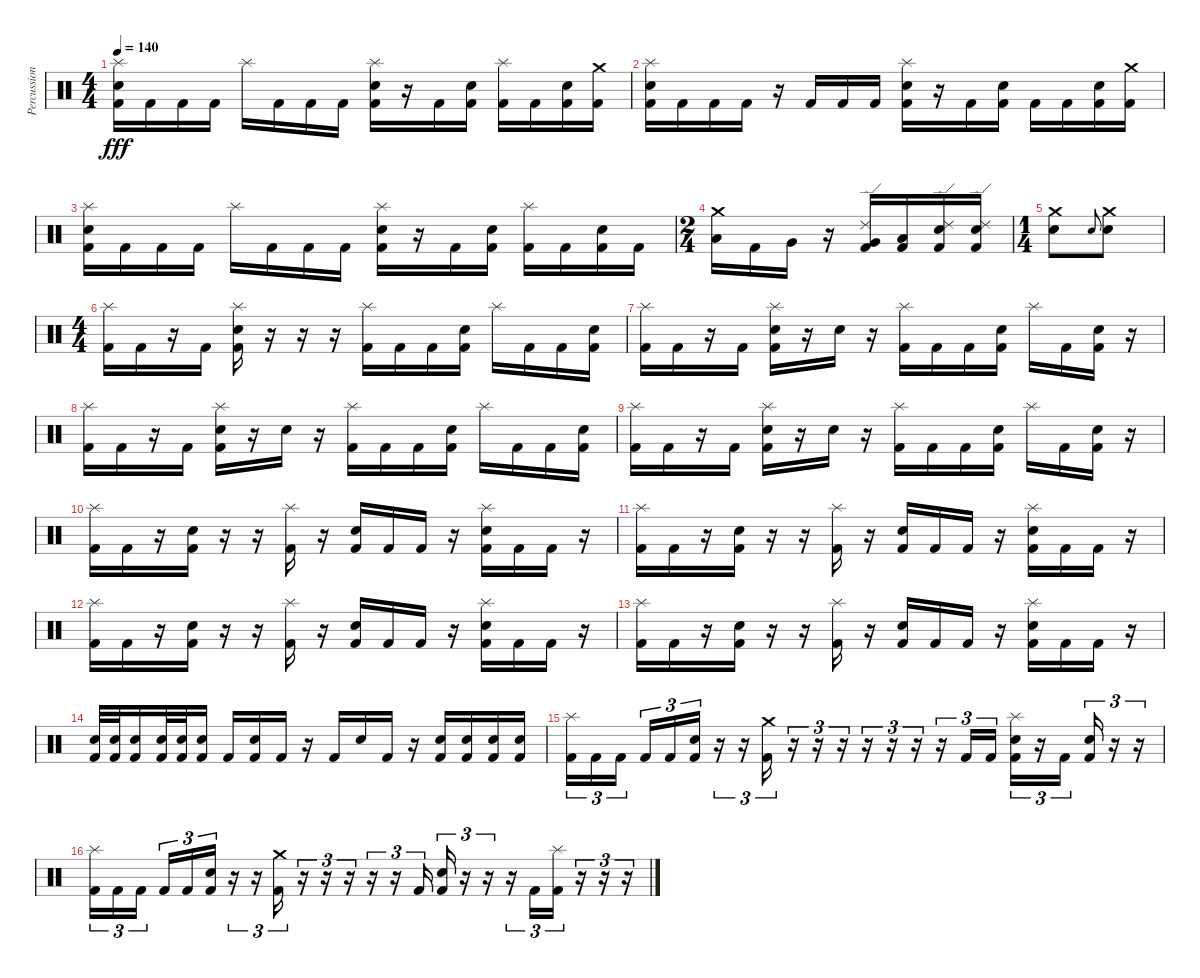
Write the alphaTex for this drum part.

\track ("Percussion" "Percussion") {instrument percussion}
\staff {score}
\articulation defaults
\ts (4 4)
\tempo 140
\clef neutral
\ks c
("Splash (hit)" "Electric Snare (hit)" "Kick (hit) 2").16{dy fff} "Kick (hit) 2".16 "Kick (hit) 2".16 "Kick (hit) 2".16 "Splash (hit)".16 "Kick (hit) 2".16 "Kick (hit) 2".16 "Kick (hit) 2".16 ("Splash (hit)" "Electric Snare (hit)" "Kick (hit) 2").16 r.16 "Kick (hit) 2".16 ("Electric Snare (hit)" "Kick (hit) 2").16 ("Splash (hit)" "Kick (hit) 2").16 "Kick (hit) 2".16 ("Electric Snare (hit)" "Kick (hit) 2").16 ("Crash medium (hit)" "Kick (hit) 2").16 |
("Splash (hit)" "Electric Snare (hit)" "Kick (hit) 2").16 "Kick (hit) 2".16 "Kick (hit) 2".16 "Kick (hit) 2".16 r.16 "Kick (hit) 2".16 "Kick (hit) 2".16 "Kick (hit) 2".16 ("Splash (hit)" "Electric Snare (hit)" "Kick (hit) 2").16 r.16 "Kick (hit) 2".16 ("Electric Snare (hit)" "Kick (hit) 2").16 "Kick (hit) 2".16 "Kick (hit) 2".16 ("Electric Snare (hit)" "Kick (hit) 2").16 ("Crash medium (hit)" "Kick (hit) 2").16 |
("Splash (hit)" "Electric Snare (hit)" "Kick (hit) 2").16 "Kick (hit) 2".16 "Kick (hit) 2".16 "Kick (hit) 2".16 "Splash (hit)".16 "Kick (hit) 2".16 "Kick (hit) 2".16 "Kick (hit) 2".16 ("Splash (hit)" "Electric Snare (hit)" "Kick (hit) 2").16 r.16 "Kick (hit) 2".16 ("Electric Snare (hit)" "Kick (hit) 2").16 ("Splash (hit)" "Kick (hit) 2").16 "Kick (hit) 2".16 ("Electric Snare (hit)" "Kick (hit) 2").16 "Kick (hit) 2".16 |
\ts (2 4)
("Crash medium (hit)" "Low Tom (hit)").16 "Kick (hit) 2".16 "Very Low Tom (hit)".16 r.16 ("Ride (edge) 2" "Very Low Tom (hit)" "Kick (hit) 2").16 ("Low Floor Tom (hit)" "Kick (hit) 2").16 ("Ride (edge) 2" "Electric Snare (hit)" "Kick (hit) 2").16 ("Ride (edge) 2" "Electric Snare (hit)" "Kick (hit) 2").16 |
\ts (1 4)
("Crash medium (hit)" "Electric Snare (hit)").8 "Electric Snare (hit)".8{gr onbeat} ("Crash medium (hit)" "Electric Snare (hit)").8 |
\ts (4 4)
("Splash (hit)" "Kick (hit) 2").16 "Kick (hit) 2".16 r.16 "Kick (hit) 2".16 ("Splash (hit)" "Electric Snare (hit)" "Kick (hit) 2").16 r.16 r.16 r.16 ("Splash (hit)" "Kick (hit) 2").16 "Kick (hit) 2".16 "Kick (hit) 2".16 ("Electric Snare (hit)" "Kick (hit) 2").16 "Splash (hit)".16 "Kick (hit) 2".16 "Kick (hit) 2".16 ("Electric Snare (hit)" "Kick (hit) 2").16 |
("Splash (hit)" "Kick (hit) 2").16 "Kick (hit) 2".16 r.16 "Kick (hit) 2".16 ("Splash (hit)" "Electric Snare (hit)" "Kick (hit) 2").16 r.16 "Electric Snare (hit)".16 r.16 ("Splash (hit)" "Kick (hit) 2").16 "Kick (hit) 2".16 "Kick (hit) 2".16 ("Electric Snare (hit)" "Kick (hit) 2").16 "Splash (hit)".16 "Kick (hit) 2".16 ("Electric Snare (hit)" "Kick (hit) 2").16 r.16 |
("Splash (hit)" "Kick (hit) 2").16 "Kick (hit) 2".16 r.16 "Kick (hit) 2".16 ("Splash (hit)" "Electric Snare (hit)" "Kick (hit) 2").16 r.16 "Electric Snare (hit)".16 r.16 ("Splash (hit)" "Kick (hit) 2").16 "Kick (hit) 2".16 "Kick (hit) 2".16 ("Electric Snare (hit)" "Kick (hit) 2").16 "Splash (hit)".16 "Kick (hit) 2".16 "Kick (hit) 2".16 ("Electric Snare (hit)" "Kick (hit) 2").16 |
("Splash (hit)" "Kick (hit) 2").16 "Kick (hit) 2".16 r.16 "Kick (hit) 2".16 ("Splash (hit)" "Electric Snare (hit)" "Kick (hit) 2").16 r.16 "Electric Snare (hit)".16 r.16 ("Splash (hit)" "Kick (hit) 2").16 "Kick (hit) 2".16 "Kick (hit) 2".16 ("Electric Snare (hit)" "Kick (hit) 2").16 "Splash (hit)".16 "Kick (hit) 2".16 ("Electric Snare (hit)" "Kick (hit) 2").16 r.16 |
("Splash (hit)" "Kick (hit) 2").16 "Kick (hit) 2".16 r.16 ("Electric Snare (hit)" "Kick (hit) 2").16 r.16 r.16 ("Splash (hit)" "Kick (hit) 2").16 r.16 ("Electric Snare (hit)" "Kick (hit) 2").16 "Kick (hit) 2".16 "Kick (hit) 2".16 r.16 ("Splash (hit)" "Electric Snare (hit)" "Kick (hit) 2").16 "Kick (hit) 2".16 "Kick (hit) 2".16 r.16 |
("Splash (hit)" "Kick (hit) 2").16 "Kick (hit) 2".16 r.16 ("Electric Snare (hit)" "Kick (hit) 2").16 r.16 r.16 ("Splash (hit)" "Kick (hit) 2").16 r.16 ("Electric Snare (hit)" "Kick (hit) 2").16 "Kick (hit) 2".16 "Kick (hit) 2".16 r.16 ("Splash (hit)" "Electric Snare (hit)" "Kick (hit) 2").16 "Kick (hit) 2".16 "Kick (hit) 2".16 r.16 |
("Splash (hit)" "Kick (hit) 2").16 "Kick (hit) 2".16 r.16 ("Electric Snare (hit)" "Kick (hit) 2").16 r.16 r.16 ("Splash (hit)" "Kick (hit) 2").16 r.16 ("Electric Snare (hit)" "Kick (hit) 2").16 "Kick (hit) 2".16 "Kick (hit) 2".16 r.16 ("Splash (hit)" "Electric Snare (hit)" "Kick (hit) 2").16 "Kick (hit) 2".16 "Kick (hit) 2".16 r.16 |
("Splash (hit)" "Kick (hit) 2").16 "Kick (hit) 2".16 r.16 ("Electric Snare (hit)" "Kick (hit) 2").16 r.16 r.16 ("Splash (hit)" "Kick (hit) 2").16 r.16 ("Electric Snare (hit)" "Kick (hit) 2").16 "Kick (hit) 2".16 "Kick (hit) 2".16 r.16 ("Splash (hit)" "Electric Snare (hit)" "Kick (hit) 2").16 "Kick (hit) 2".16 "Kick (hit) 2".16 r.16 |
("Electric Snare (hit)" "Kick (hit) 2").32 ("Electric Snare (hit)" "Kick (hit) 2").32 ("Electric Snare (hit)" "Kick (hit) 2").16 ("Electric Snare (hit)" "Kick (hit) 2").32 ("Electric Snare (hit)" "Kick (hit) 2").32 ("Electric Snare (hit)" "Kick (hit) 2").16 "Kick (hit) 2".16 ("Electric Snare (hit)" "Kick (hit) 2").16 "Kick (hit) 2".16 r.16 "Kick (hit) 2".16 "Electric Snare (hit)".16 "Kick (hit) 2".16 r.16 ("Electric Snare (hit)" "Kick (hit) 2").16 ("Electric Snare (hit)" "Kick (hit) 2").16 ("Electric Snare (hit)" "Kick (hit) 2").16 ("Electric Snare (hit)" "Kick (hit) 2").16 |
("Splash (hit)" "Kick (hit) 2").16{tu (3 2)} "Kick (hit) 2".16{tu (3 2)} "Kick (hit) 2".16{tu (3 2) beam splitsecondary} "Kick (hit) 2".16{tu (3 2)} "Kick (hit) 2".16{tu (3 2)} ("Electric Snare (hit)" "Kick (hit) 2").16{tu (3 2)} r.16{tu (3 2)} r.16{tu (3 2)} ("Crash medium (hit)" "Kick (hit) 2").16{tu (3 2)} r.16{tu (3 2)} r.16{tu (3 2)} r.16{tu (3 2)} r.16{tu (3 2)} r.16{tu (3 2)} r.16{tu (3 2)} r.16{tu (3 2)} "Kick (hit) 2".16{tu (3 2)} "Kick (hit) 2".16{tu (3 2)} ("Splash (hit)" "Electric Snare (hit)" "Kick (hit) 2").16{tu (3 2)} r.16{tu (3 2)} "Kick (hit) 2".16{tu (3 2)} ("Electric Snare (hit)" "Kick (hit) 2").16{tu (3 2)} r.16{tu (3 2)} r.16{tu (3 2)} |
("Splash (hit)" "Kick (hit) 2").16{tu (3 2)} "Kick (hit) 2".16{tu (3 2)} "Kick (hit) 2".16{tu (3 2) beam splitsecondary} "Kick (hit) 2".16{tu (3 2)} "Kick (hit) 2".16{tu (3 2)} ("Electric Snare (hit)" "Kick (hit) 2").16{tu (3 2)} r.16{tu (3 2)} r.16{tu (3 2)} ("Crash medium (hit)" "Kick (hit) 2").16{tu (3 2)} r.16{tu (3 2)} r.16{tu (3 2)} r.16{tu (3 2)} r.16{tu (3 2)} r.16{tu (3 2)} "Kick (hit) 2".16{tu (3 2)} ("Electric Snare (hit)" "Kick (hit) 2").16{tu (3 2)} r.16{tu (3 2)} r.16{tu (3 2)} r.16{tu (3 2)} "Kick (hit) 2".16{tu (3 2)} ("Splash (hit)" "Kick (hit) 2").16{tu (3 2)} r.16{tu (3 2)} r.16{tu (3 2)} r.16{tu (3 2)}
